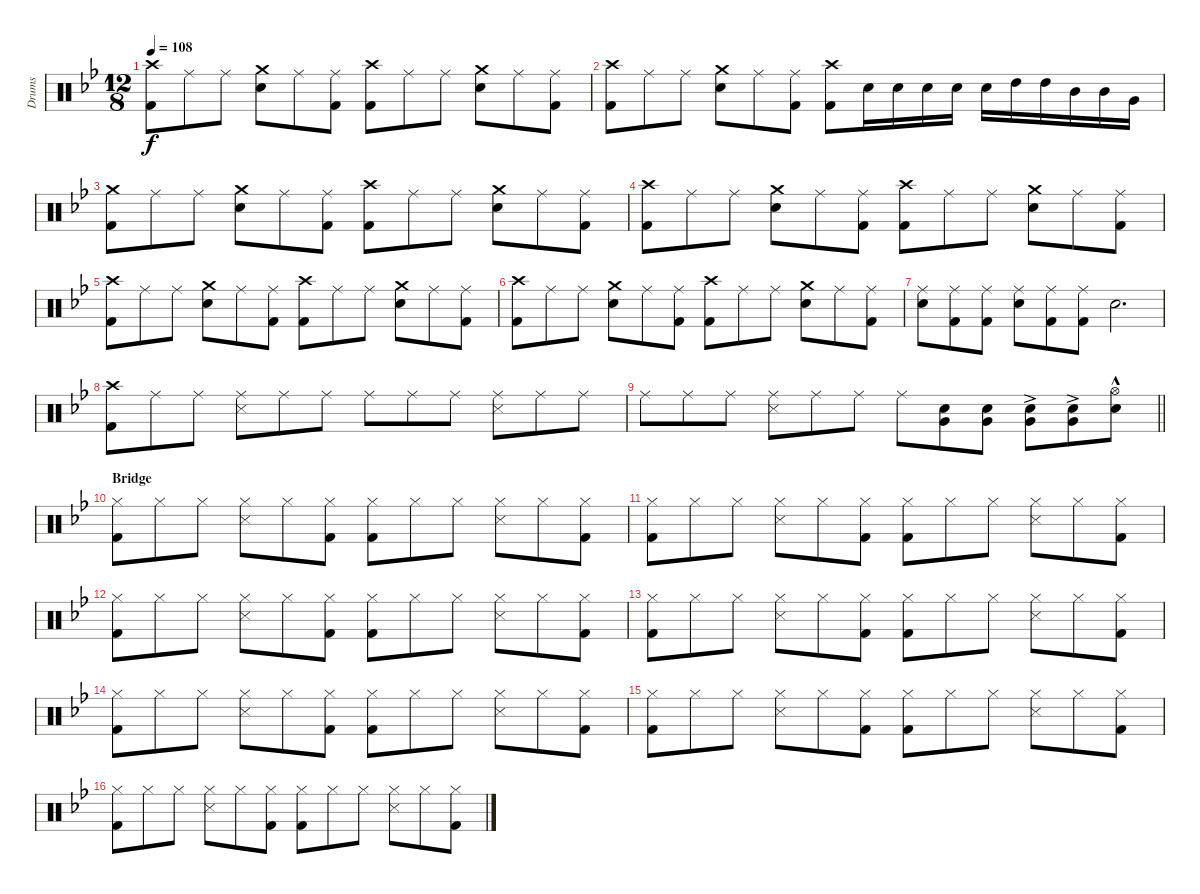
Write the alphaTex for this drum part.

\track ("Drums" "Drums") {instrument percussion}
\staff {score}
\articulation defaults
\ts (12 8)
\tempo 108
\clef neutral
\ks gminor
("Crash high (hit)" "Kick (hit) 2").8{dy f} "Ride (middle)".8 "Ride (middle)".8 ("Crash medium (hit)" "Electric Snare (hit)").8 "Ride (middle)".8 ("Ride (middle)" "Kick (hit) 2").8 ("Crash high (hit)" "Kick (hit) 2").8 "Ride (middle)".8 "Ride (middle)".8 ("Crash medium (hit)" "Electric Snare (hit)").8 "Ride (middle)".8 ("Ride (middle)" "Kick (hit) 2").8 |
("Crash high (hit)" "Kick (hit) 2").8 "Ride (middle)".8 "Ride (middle)".8 ("Crash medium (hit)" "Electric Snare (hit)").8 "Ride (middle)".8 ("Ride (middle)" "Kick (hit) 2").8 ("Crash high (hit)" "Kick (hit) 2").8 "Electric Snare (hit)".16 "Electric Snare (hit)".16 "Electric Snare (hit)".16 "Electric Snare (hit)".16 "Electric Snare (hit)".16 "High Tom (hit)".16 "High Tom (hit)".16 "Mid Tom (hit)".16 "Mid Tom (hit)".16 "Very Low Tom (hit)".16 |
("Crash medium (hit)" "Kick (hit) 2").8 "Ride (middle)".8 "Ride (middle)".8 ("Crash medium (hit)" "Electric Snare (hit)").8 "Ride (middle)".8 ("Ride (middle)" "Kick (hit) 2").8 ("Crash high (hit)" "Kick (hit) 2").8 "Ride (middle)".8 "Ride (middle)".8 ("Crash medium (hit)" "Electric Snare (hit)").8 "Ride (middle)".8 ("Ride (middle)" "Kick (hit) 2").8 |
("Crash high (hit)" "Kick (hit) 2").8 "Ride (middle)".8 "Ride (middle)".8 ("Crash medium (hit)" "Electric Snare (hit)").8 "Ride (middle)".8 ("Ride (middle)" "Kick (hit) 2").8 ("Crash high (hit)" "Kick (hit) 2").8 "Ride (middle)".8 "Ride (middle)".8 ("Crash medium (hit)" "Electric Snare (hit)").8 "Ride (middle)".8 ("Ride (middle)" "Kick (hit) 2").8 |
("Crash high (hit)" "Kick (hit) 2").8 "Ride (middle)".8 "Ride (middle)".8 ("Crash medium (hit)" "Electric Snare (hit)").8 "Ride (middle)".8 ("Ride (middle)" "Kick (hit) 2").8 ("Crash high (hit)" "Kick (hit) 2").8 "Ride (middle)".8 "Ride (middle)".8 ("Crash medium (hit)" "Electric Snare (hit)").8 "Ride (middle)".8 ("Ride (middle)" "Kick (hit) 2").8 |
("Crash high (hit)" "Kick (hit) 2").8 "Ride (middle)".8 "Ride (middle)".8 ("Crash medium (hit)" "Electric Snare (hit)").8 "Ride (middle)".8 ("Ride (middle)" "Kick (hit) 2").8 ("Crash high (hit)" "Kick (hit) 2").8 "Ride (middle)".8 "Ride (middle)".8 ("Crash medium (hit)" "Electric Snare (hit)").8 "Ride (middle)".8 ("Ride (middle)" "Kick (hit) 2").8 |
("Ride (middle)" "Electric Snare (hit)").8 ("Ride (middle)" "Kick (hit) 2").8 ("Ride (middle)" "Kick (hit) 2").8 ("Ride (middle)" "Electric Snare (hit)").8 ("Ride (middle)" "Kick (hit) 2").8 ("Ride (middle)" "Kick (hit) 2").8 "Electric Snare (hit)".2{d} |
("Crash high (hit)" "Kick (hit) 2").8 "Ride (middle)".8 "Ride (middle)".8 ("Ride (middle)" "Snare (side stick) 3").8 "Ride (middle)".8 "Ride (middle)".8 "Ride (middle)".8 "Ride (middle)".8 "Ride (middle)".8 ("Ride (middle)" "Snare (side stick) 3").8 "Ride (middle)".8 "Ride (middle)".8 |
\barLineRight lightlight "Ride (middle)".8 "Ride (middle)".8 "Ride (middle)".8
("Ride (middle)" "Snare (side stick) 3").8 "Ride (middle)".8 "Ride (middle)".8 "Ride (middle)".8 ("Electric Snare (hit)" "Very Low Tom (hit)").8 ("Electric Snare (hit)" "Very Low Tom (hit)").8 ("Electric Snare (hit)"{ac} "Very Low Tom (hit)"{ac}).8 ("Electric Snare (hit)"{ac} "Very Low Tom (hit)"{ac}).8 ("Hi-Hat (open)"{hac} "Electric Snare (hit)"{hac}).8 |
\section ("" "Bridge")
("Hi-Hat (closed)" "Kick (hit) 2").8 "Hi-Hat (closed)".8 "Hi-Hat (closed)".8 ("Hi-Hat (closed)" "Snare (side stick) 3").8 "Hi-Hat (closed)".8 ("Hi-Hat (closed)" "Kick (hit) 2").8 ("Hi-Hat (closed)" "Kick (hit) 2").8 "Hi-Hat (closed)".8 "Hi-Hat (closed)".8 ("Hi-Hat (closed)" "Snare (side stick) 3").8 "Hi-Hat (closed)".8 ("Hi-Hat (closed)" "Kick (hit) 2").8 |
("Hi-Hat (closed)" "Kick (hit) 2").8 "Hi-Hat (closed)".8 "Hi-Hat (closed)".8 ("Hi-Hat (closed)" "Snare (side stick) 3").8 "Hi-Hat (closed)".8 ("Hi-Hat (closed)" "Kick (hit) 2").8 ("Hi-Hat (closed)" "Kick (hit) 2").8 "Hi-Hat (closed)".8 "Hi-Hat (closed)".8 ("Hi-Hat (closed)" "Snare (side stick) 3").8 "Hi-Hat (closed)".8 ("Hi-Hat (closed)" "Kick (hit) 2").8 |
("Hi-Hat (closed)" "Kick (hit) 2").8 "Hi-Hat (closed)".8 "Hi-Hat (closed)".8 ("Hi-Hat (closed)" "Snare (side stick) 3").8 "Hi-Hat (closed)".8 ("Hi-Hat (closed)" "Kick (hit) 2").8 ("Hi-Hat (closed)" "Kick (hit) 2").8 "Hi-Hat (closed)".8 "Hi-Hat (closed)".8 ("Hi-Hat (closed)" "Snare (side stick) 3").8 "Hi-Hat (closed)".8 ("Hi-Hat (closed)" "Kick (hit) 2").8 |
("Hi-Hat (closed)" "Kick (hit) 2").8 "Hi-Hat (closed)".8 "Hi-Hat (closed)".8 ("Hi-Hat (closed)" "Snare (side stick) 3").8 "Hi-Hat (closed)".8 ("Hi-Hat (closed)" "Kick (hit) 2").8 ("Hi-Hat (closed)" "Kick (hit) 2").8 "Hi-Hat (closed)".8 "Hi-Hat (closed)".8 ("Hi-Hat (closed)" "Snare (side stick) 3").8 "Hi-Hat (closed)".8 ("Hi-Hat (closed)" "Kick (hit) 2").8 |
("Hi-Hat (closed)" "Kick (hit) 2").8 "Hi-Hat (closed)".8 "Hi-Hat (closed)".8 ("Hi-Hat (closed)" "Snare (side stick) 3").8 "Hi-Hat (closed)".8 ("Hi-Hat (closed)" "Kick (hit) 2").8 ("Hi-Hat (closed)" "Kick (hit) 2").8 "Hi-Hat (closed)".8 "Hi-Hat (closed)".8 ("Hi-Hat (closed)" "Snare (side stick) 3").8 "Hi-Hat (closed)".8 ("Hi-Hat (closed)" "Kick (hit) 2").8 |
("Hi-Hat (closed)" "Kick (hit) 2").8 "Hi-Hat (closed)".8 "Hi-Hat (closed)".8 ("Hi-Hat (closed)" "Snare (side stick) 3").8 "Hi-Hat (closed)".8 ("Hi-Hat (closed)" "Kick (hit) 2").8 ("Hi-Hat (closed)" "Kick (hit) 2").8 "Hi-Hat (closed)".8 "Hi-Hat (closed)".8 ("Hi-Hat (closed)" "Snare (side stick) 3").8 "Hi-Hat (closed)".8 ("Hi-Hat (closed)" "Kick (hit) 2").8 |
("Hi-Hat (closed)" "Kick (hit) 2").8 "Hi-Hat (closed)".8 "Hi-Hat (closed)".8 ("Hi-Hat (closed)" "Snare (side stick) 3").8 "Hi-Hat (closed)".8 ("Hi-Hat (closed)" "Kick (hit) 2").8 ("Hi-Hat (closed)" "Kick (hit) 2").8 "Hi-Hat (closed)".8 "Hi-Hat (closed)".8 ("Hi-Hat (closed)" "Snare (side stick) 3").8 "Hi-Hat (closed)".8 ("Hi-Hat (closed)" "Kick (hit) 2").8
